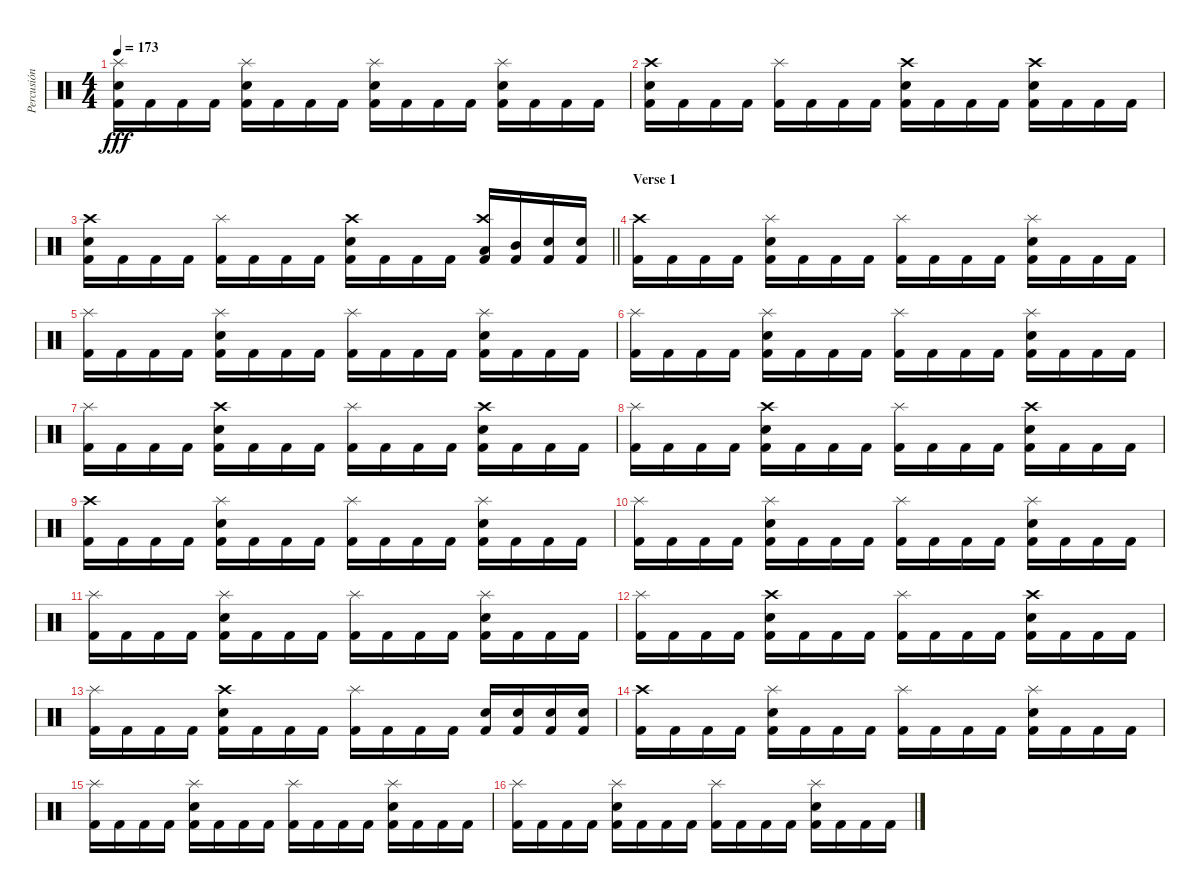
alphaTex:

\track ("Percusión" "Percusión") {instrument percussion}
\staff {score}
\articulation defaults
\ts (4 4)
\tempo 173
\clef neutral
\ks c
("Splash (hit)" "Electric Snare (hit)" "Kick (hit) 2").16{dy fff} "Kick (hit) 2".16 "Kick (hit) 2".16 "Kick (hit) 2".16 ("Splash (hit)" "Electric Snare (hit)" "Kick (hit) 2").16 "Kick (hit) 2".16 "Kick (hit) 2".16 "Kick (hit) 2".16 ("Splash (hit)" "Electric Snare (hit)" "Kick (hit) 2").16 "Kick (hit) 2".16 "Kick (hit) 2".16 "Kick (hit) 2".16 ("Splash (hit)" "Electric Snare (hit)" "Kick (hit) 2").16 "Kick (hit) 2".16 "Kick (hit) 2".16 "Kick (hit) 2".16 |
("Crash high (hit)" "Electric Snare (hit)" "Kick (hit) 2").16 "Kick (hit) 2".16 "Kick (hit) 2".16 "Kick (hit) 2".16 ("Splash (hit)" "Kick (hit) 2").16 "Kick (hit) 2".16 "Kick (hit) 2".16 "Kick (hit) 2".16 ("Crash high (hit)" "Electric Snare (hit)" "Kick (hit) 2").16 "Kick (hit) 2".16 "Kick (hit) 2".16 "Kick (hit) 2".16 ("Crash high (hit)" "Electric Snare (hit)" "Kick (hit) 2").16 "Kick (hit) 2".16 "Kick (hit) 2".16 "Kick (hit) 2".16 |
\barLineRight lightlight
("Crash high (hit)" "Electric Snare (hit)" "Kick (hit) 2").16 "Kick (hit) 2".16 "Kick (hit) 2".16 "Kick (hit) 2".16 ("Splash (hit)" "Kick (hit) 2").16 "Kick (hit) 2".16 "Kick (hit) 2".16 "Kick (hit) 2".16 ("Crash high (hit)" "Electric Snare (hit)" "Kick (hit) 2").16 "Kick (hit) 2".16 "Kick (hit) 2".16 "Kick (hit) 2".16 ("Crash high (hit)" "Low Tom (hit)" "Kick (hit) 2").16 ("Mid Tom (hit)" "Kick (hit) 2").16 ("Snare (hit) 2" "Kick (hit) 2").16 ("Snare (hit) 2" "Kick (hit) 2").16 |
\section ("" "Verse 1")
("Crash high (hit)" "Kick (hit) 2").16 "Kick (hit) 2".16 "Kick (hit) 2".16 "Kick (hit) 2".16 ("Splash (hit)" "Electric Snare (hit)" "Kick (hit) 2").16 "Kick (hit) 2".16 "Kick (hit) 2".16 "Kick (hit) 2".16 ("Splash (hit)" "Kick (hit) 2").16 "Kick (hit) 2".16 "Kick (hit) 2".16 "Kick (hit) 2".16 ("Splash (hit)" "Electric Snare (hit)" "Kick (hit) 2").16 "Kick (hit) 2".16 "Kick (hit) 2".16 "Kick (hit) 2".16 |
("Splash (hit)" "Kick (hit) 2").16 "Kick (hit) 2".16 "Kick (hit) 2".16 "Kick (hit) 2".16 ("Splash (hit)" "Electric Snare (hit)" "Kick (hit) 2").16 "Kick (hit) 2".16 "Kick (hit) 2".16 "Kick (hit) 2".16 ("Splash (hit)" "Kick (hit) 2").16 "Kick (hit) 2".16 "Kick (hit) 2".16 "Kick (hit) 2".16 ("Splash (hit)" "Electric Snare (hit)" "Kick (hit) 2").16 "Kick (hit) 2".16 "Kick (hit) 2".16 "Kick (hit) 2".16 |
("Splash (hit)" "Kick (hit) 2").16 "Kick (hit) 2".16 "Kick (hit) 2".16 "Kick (hit) 2".16 ("Splash (hit)" "Electric Snare (hit)" "Kick (hit) 2").16 "Kick (hit) 2".16 "Kick (hit) 2".16 "Kick (hit) 2".16 ("Splash (hit)" "Kick (hit) 2").16 "Kick (hit) 2".16 "Kick (hit) 2".16 "Kick (hit) 2".16 ("Splash (hit)" "Electric Snare (hit)" "Kick (hit) 2").16 "Kick (hit) 2".16 "Kick (hit) 2".16 "Kick (hit) 2".16 |
("Splash (hit)" "Kick (hit) 2").16 "Kick (hit) 2".16 "Kick (hit) 2".16 "Kick (hit) 2".16 ("Crash high (hit)" "Electric Snare (hit)" "Kick (hit) 2").16 "Kick (hit) 2".16 "Kick (hit) 2".16 "Kick (hit) 2".16 ("Splash (hit)" "Kick (hit) 2").16 "Kick (hit) 2".16 "Kick (hit) 2".16 "Kick (hit) 2".16 ("Crash high (hit)" "Electric Snare (hit)" "Kick (hit) 2").16 "Kick (hit) 2".16 "Kick (hit) 2".16 "Kick (hit) 2".16 |
("Splash (hit)" "Kick (hit) 2").16 "Kick (hit) 2".16 "Kick (hit) 2".16 "Kick (hit) 2".16 ("Crash high (hit)" "Electric Snare (hit)" "Kick (hit) 2").16 "Kick (hit) 2".16 "Kick (hit) 2".16 "Kick (hit) 2".16 ("Splash (hit)" "Kick (hit) 2").16 "Kick (hit) 2".16 "Kick (hit) 2".16 "Kick (hit) 2".16 ("Crash high (hit)" "Electric Snare (hit)" "Kick (hit) 2").16 "Kick (hit) 2".16 "Kick (hit) 2".16 "Kick (hit) 2".16 |
("Crash high (hit)" "Kick (hit) 2").16 "Kick (hit) 2".16 "Kick (hit) 2".16 "Kick (hit) 2".16 ("Splash (hit)" "Electric Snare (hit)" "Kick (hit) 2").16 "Kick (hit) 2".16 "Kick (hit) 2".16 "Kick (hit) 2".16 ("Splash (hit)" "Kick (hit) 2").16 "Kick (hit) 2".16 "Kick (hit) 2".16 "Kick (hit) 2".16 ("Splash (hit)" "Electric Snare (hit)" "Kick (hit) 2").16 "Kick (hit) 2".16 "Kick (hit) 2".16 "Kick (hit) 2".16 |
("Splash (hit)" "Kick (hit) 2").16 "Kick (hit) 2".16 "Kick (hit) 2".16 "Kick (hit) 2".16 ("Splash (hit)" "Electric Snare (hit)" "Kick (hit) 2").16 "Kick (hit) 2".16 "Kick (hit) 2".16 "Kick (hit) 2".16 ("Splash (hit)" "Kick (hit) 2").16 "Kick (hit) 2".16 "Kick (hit) 2".16 "Kick (hit) 2".16 ("Splash (hit)" "Electric Snare (hit)" "Kick (hit) 2").16 "Kick (hit) 2".16 "Kick (hit) 2".16 "Kick (hit) 2".16 |
("Splash (hit)" "Kick (hit) 2").16 "Kick (hit) 2".16 "Kick (hit) 2".16 "Kick (hit) 2".16 ("Splash (hit)" "Electric Snare (hit)" "Kick (hit) 2").16 "Kick (hit) 2".16 "Kick (hit) 2".16 "Kick (hit) 2".16 ("Splash (hit)" "Kick (hit) 2").16 "Kick (hit) 2".16 "Kick (hit) 2".16 "Kick (hit) 2".16 ("Splash (hit)" "Electric Snare (hit)" "Kick (hit) 2").16 "Kick (hit) 2".16 "Kick (hit) 2".16 "Kick (hit) 2".16 |
("Splash (hit)" "Kick (hit) 2").16 "Kick (hit) 2".16 "Kick (hit) 2".16 "Kick (hit) 2".16 ("Crash high (hit)" "Electric Snare (hit)" "Kick (hit) 2").16 "Kick (hit) 2".16 "Kick (hit) 2".16 "Kick (hit) 2".16 ("Splash (hit)" "Kick (hit) 2").16 "Kick (hit) 2".16 "Kick (hit) 2".16 "Kick (hit) 2".16 ("Crash high (hit)" "Electric Snare (hit)" "Kick (hit) 2").16 "Kick (hit) 2".16 "Kick (hit) 2".16 "Kick (hit) 2".16 |
("Splash (hit)" "Kick (hit) 2").16 "Kick (hit) 2".16 "Kick (hit) 2".16 "Kick (hit) 2".16 ("Crash high (hit)" "Electric Snare (hit)" "Kick (hit) 2").16 "Kick (hit) 2".16 "Kick (hit) 2".16 "Kick (hit) 2".16 ("Splash (hit)" "Kick (hit) 2").16 "Kick (hit) 2".16 "Kick (hit) 2".16 "Kick (hit) 2".16 ("Electric Snare (hit)" "Kick (hit) 2").16 ("Electric Snare (hit)" "Kick (hit) 2").16 ("Electric Snare (hit)" "Kick (hit) 2").16 ("Electric Snare (hit)" "Kick (hit) 2").16 |
("Crash high (hit)" "Kick (hit) 2").16 "Kick (hit) 2".16 "Kick (hit) 2".16 "Kick (hit) 2".16 ("Splash (hit)" "Electric Snare (hit)" "Kick (hit) 2").16 "Kick (hit) 2".16 "Kick (hit) 2".16 "Kick (hit) 2".16 ("Splash (hit)" "Kick (hit) 2").16 "Kick (hit) 2".16 "Kick (hit) 2".16 "Kick (hit) 2".16 ("Splash (hit)" "Electric Snare (hit)" "Kick (hit) 2").16 "Kick (hit) 2".16 "Kick (hit) 2".16 "Kick (hit) 2".16 |
("Splash (hit)" "Kick (hit) 2").16 "Kick (hit) 2".16 "Kick (hit) 2".16 "Kick (hit) 2".16 ("Splash (hit)" "Electric Snare (hit)" "Kick (hit) 2").16 "Kick (hit) 2".16 "Kick (hit) 2".16 "Kick (hit) 2".16 ("Splash (hit)" "Kick (hit) 2").16 "Kick (hit) 2".16 "Kick (hit) 2".16 "Kick (hit) 2".16 ("Splash (hit)" "Electric Snare (hit)" "Kick (hit) 2").16 "Kick (hit) 2".16 "Kick (hit) 2".16 "Kick (hit) 2".16 |
("Splash (hit)" "Kick (hit) 2").16 "Kick (hit) 2".16 "Kick (hit) 2".16 "Kick (hit) 2".16 ("Splash (hit)" "Electric Snare (hit)" "Kick (hit) 2").16 "Kick (hit) 2".16 "Kick (hit) 2".16 "Kick (hit) 2".16 ("Splash (hit)" "Kick (hit) 2").16 "Kick (hit) 2".16 "Kick (hit) 2".16 "Kick (hit) 2".16 ("Splash (hit)" "Electric Snare (hit)" "Kick (hit) 2").16 "Kick (hit) 2".16 "Kick (hit) 2".16 "Kick (hit) 2".16
